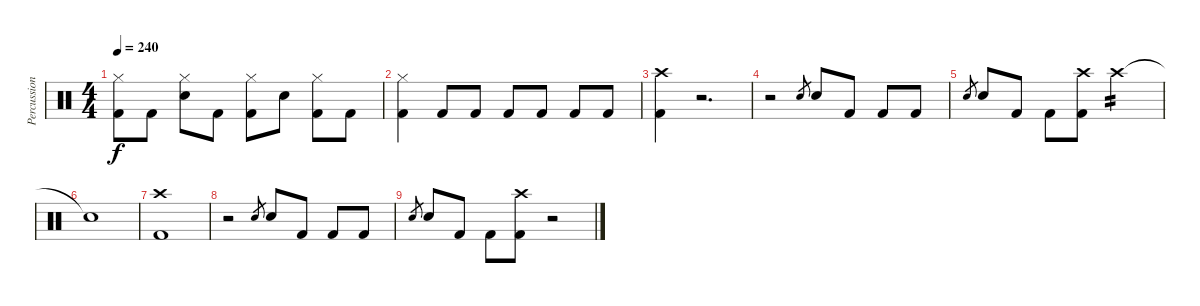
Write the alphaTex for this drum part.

\track ("Percussion" "Percussion") {instrument percussion}
\staff {score}
\articulation defaults
\ts (4 4)
\tempo 240
\clef neutral
\ks c
("Kick (hit) 2" "Hi-Hat (closed)").8{dy f} "Kick (hit) 2".8 ("Snare (hit) 2" "Hi-Hat (closed)").8 "Kick (hit) 2".8 ("Kick (hit) 2" "Hi-Hat (closed)").8 "Snare (hit) 2".8 ("Kick (hit) 2" "Hi-Hat (closed)").8 "Kick (hit) 2".8 |
("Kick (hit) 2" "Hi-Hat (closed)").4 "Kick (hit) 2".8 "Kick (hit) 2".8 "Kick (hit) 2".8 "Kick (hit) 2".8 "Kick (hit) 2".8 "Kick (hit) 2".8 |
("Kick (hit) 2" "Crash high (hit)").4 r.2{d} |
r.2 "Snare (hit) 2".8{gr} "Snare (hit) 2".8 "Kick (hit) 2".8 "Kick (hit) 2".8 "Kick (hit) 2".8 |
"Snare (hit) 2".8{gr} "Snare (hit) 2".8 "Kick (hit) 2".8 "Kick (hit) 2".8 ("Kick (hit) 2" "Crash high (hit)").8 "Crash high (hit)".2{tp 2} |
"Snare (hit)"{t}.1 |
("Kick (hit) 2" "Crash high (hit)").1 |
r.2 "Snare (hit) 2".8{gr} "Snare (hit) 2".8 "Kick (hit) 2".8 "Kick (hit) 2".8 "Kick (hit) 2".8 |
"Snare (hit) 2".8{gr} "Snare (hit) 2".8 "Kick (hit) 2".8 "Kick (hit) 2".8 ("Kick (hit) 2" "Crash high (hit)").8 r.2
